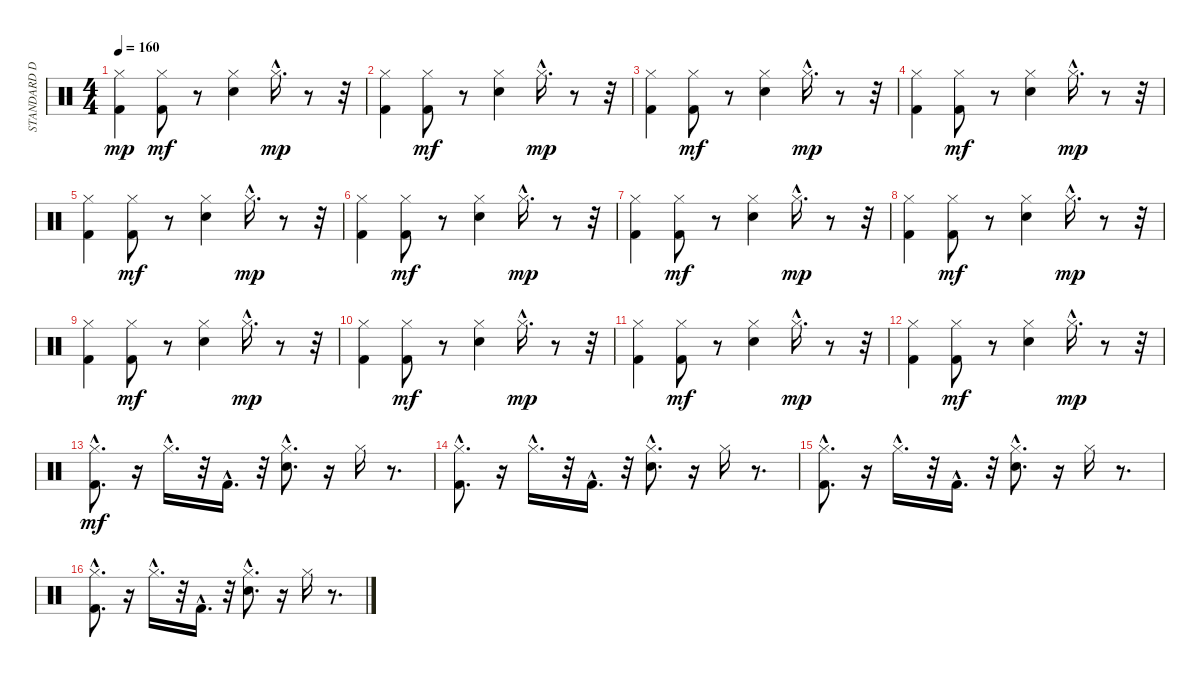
\track ("STANDARD DRUMS" "STANDARD D") {instrument percussion}
\staff {score}
\articulation defaults
\ts (4 4)
\tempo 160
\clef neutral
\ks c
("Hi-Hat (closed)" "Kick (hit) 2").4{dy mp} ("Hi-Hat (closed)" "Kick (hit) 2").8{dy mf} r.8 ("Hi-Hat (closed)" "Electric Snare (hit)").4 "Hi-Hat (closed)"{hac}.16{d dy mp} r.8 r.32 |
("Hi-Hat (closed)" "Kick (hit) 2").4 ("Hi-Hat (closed)" "Kick (hit) 2").8{dy mf} r.8 ("Hi-Hat (closed)" "Electric Snare (hit)").4 "Hi-Hat (closed)"{hac}.16{d dy mp} r.8 r.32 |
("Hi-Hat (closed)" "Kick (hit) 2").4 ("Hi-Hat (closed)" "Kick (hit) 2").8{dy mf} r.8 ("Hi-Hat (closed)" "Electric Snare (hit)").4 "Hi-Hat (closed)"{hac}.16{d dy mp} r.8 r.32 |
("Hi-Hat (closed)" "Kick (hit) 2").4 ("Hi-Hat (closed)" "Kick (hit) 2").8{dy mf} r.8 ("Hi-Hat (closed)" "Electric Snare (hit)").4 "Hi-Hat (closed)"{hac}.16{d dy mp} r.8 r.32 |
("Hi-Hat (closed)" "Kick (hit) 2").4 ("Hi-Hat (closed)" "Kick (hit) 2").8{dy mf} r.8 ("Hi-Hat (closed)" "Electric Snare (hit)").4 "Hi-Hat (closed)"{hac}.16{d dy mp} r.8 r.32 |
("Hi-Hat (closed)" "Kick (hit) 2").4 ("Hi-Hat (closed)" "Kick (hit) 2").8{dy mf} r.8 ("Hi-Hat (closed)" "Electric Snare (hit)").4 "Hi-Hat (closed)"{hac}.16{d dy mp} r.8 r.32 |
("Hi-Hat (closed)" "Kick (hit) 2").4 ("Hi-Hat (closed)" "Kick (hit) 2").8{dy mf} r.8 ("Hi-Hat (closed)" "Electric Snare (hit)").4 "Hi-Hat (closed)"{hac}.16{d dy mp} r.8 r.32 |
("Hi-Hat (closed)" "Kick (hit) 2").4 ("Hi-Hat (closed)" "Kick (hit) 2").8{dy mf} r.8 ("Hi-Hat (closed)" "Electric Snare (hit)").4 "Hi-Hat (closed)"{hac}.16{d dy mp} r.8 r.32 |
("Hi-Hat (closed)" "Kick (hit) 2").4 ("Hi-Hat (closed)" "Kick (hit) 2").8{dy mf} r.8 ("Hi-Hat (closed)" "Electric Snare (hit)").4 "Hi-Hat (closed)"{hac}.16{d dy mp} r.8 r.32 |
("Hi-Hat (closed)" "Kick (hit) 2").4 ("Hi-Hat (closed)" "Kick (hit) 2").8{dy mf} r.8 ("Hi-Hat (closed)" "Electric Snare (hit)").4 "Hi-Hat (closed)"{hac}.16{d dy mp} r.8 r.32 |
("Hi-Hat (closed)" "Kick (hit) 2").4 ("Hi-Hat (closed)" "Kick (hit) 2").8{dy mf} r.8 ("Hi-Hat (closed)" "Electric Snare (hit)").4 "Hi-Hat (closed)"{hac}.16{d dy mp} r.8 r.32 |
("Hi-Hat (closed)" "Kick (hit) 2").4 ("Hi-Hat (closed)" "Kick (hit) 2").8{dy mf} r.8 ("Hi-Hat (closed)" "Electric Snare (hit)").4 "Hi-Hat (closed)"{hac}.16{d dy mp} r.8 r.32 |
("Hi-Hat (closed)"{hac} "Kick (hit) 2"{hac}).8{d dy mf} r.16 "Hi-Hat (closed)"{hac}.16{d} r.32 "Kick (hit) 2"{hac}.16{d} r.32 ("Hi-Hat (closed)"{hac} "Electric Snare (hit)"{hac}).8{d} r.16 "Hi-Hat (closed)".16 r.8{d} |
("Hi-Hat (closed)"{hac} "Kick (hit) 2"{hac}).8{d} r.16 "Hi-Hat (closed)"{hac}.16{d} r.32 "Kick (hit) 2"{hac}.16{d} r.32 ("Hi-Hat (closed)"{hac} "Electric Snare (hit)"{hac}).8{d} r.16 "Hi-Hat (closed)".16 r.8{d} |
("Hi-Hat (closed)"{hac} "Kick (hit) 2"{hac}).8{d} r.16 "Hi-Hat (closed)"{hac}.16{d} r.32 "Kick (hit) 2"{hac}.16{d} r.32 ("Hi-Hat (closed)"{hac} "Electric Snare (hit)"{hac}).8{d} r.16 "Hi-Hat (closed)".16 r.8{d} |
("Hi-Hat (closed)"{hac} "Kick (hit) 2"{hac}).8{d} r.16 "Hi-Hat (closed)"{hac}.16{d} r.32 "Kick (hit) 2"{hac}.16{d} r.32 ("Hi-Hat (closed)"{hac} "Electric Snare (hit)"{hac}).8{d} r.16 "Hi-Hat (closed)".16 r.8{d}
